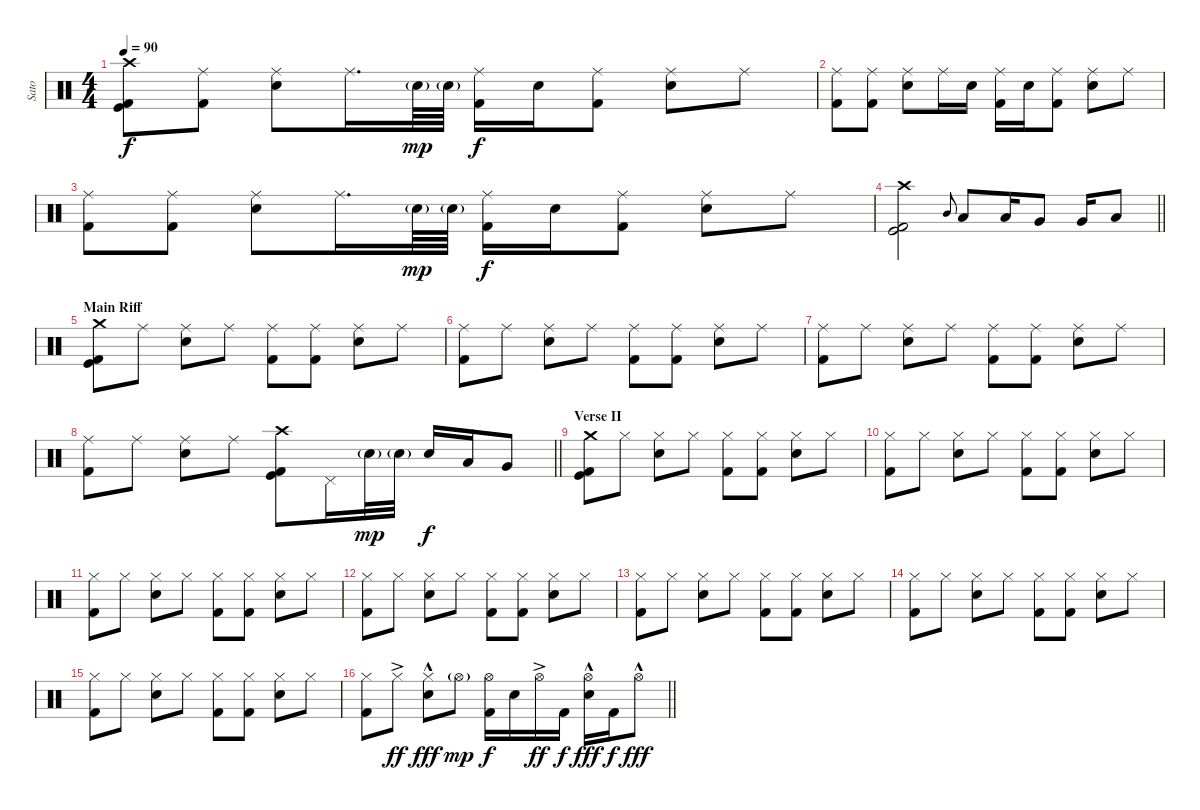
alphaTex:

\track ("Sato" "Sato") {instrument percussion}
\staff {score}
\articulation defaults
\ts (4 4)
\tempo 90
\clef neutral
\ks c
("Crash high (hit)" "Kick (hit) 2" "Kick (hit)").8{dy f} ("Ride (middle)" "Kick (hit) 2").8 ("Ride (middle)" "Electric Snare (hit)").8 "Ride (middle)".16{d} "Electric Snare (hit)"{g}.64{dy mp} "Electric Snare (hit)"{g}.64 ("Ride (middle)" "Kick (hit) 2").16{dy f} "Electric Snare (hit)".16 ("Ride (middle)" "Kick (hit) 2").8 ("Ride (middle)" "Electric Snare (hit)").8 "Ride (middle)".8 |
("Ride (middle)" "Kick (hit) 2").8 ("Ride (middle)" "Kick (hit) 2").8 ("Ride (middle)" "Electric Snare (hit)").8 "Ride (middle)".16 "Electric Snare (hit)".16 ("Ride (middle)" "Kick (hit) 2").16 "Electric Snare (hit)".16 ("Ride (middle)" "Kick (hit) 2").8 ("Ride (middle)" "Electric Snare (hit)").8 "Ride (middle)".8 |
("Ride (middle)" "Kick (hit) 2").8 ("Ride (middle)" "Kick (hit) 2").8 ("Ride (middle)" "Electric Snare (hit)").8 "Ride (middle)".16{d} "Electric Snare (hit)"{g}.64{dy mp} "Electric Snare (hit)"{g}.64 ("Ride (middle)" "Kick (hit) 2").16{dy f} "Electric Snare (hit)".16 ("Ride (middle)" "Kick (hit) 2").8 ("Ride (middle)" "Electric Snare (hit)").8 "Ride (middle)".8 |
\barLineRight lightlight
("Crash high (hit)" "Kick (hit) 2" "Kick (hit)").2 "Mid Tom (hit)".8{gr onbeat} "Low Tom (hit)".8 "Low Tom (hit)".16 "Very Low Tom (hit)".8 "Very Low Tom (hit)".16 "Low Floor Tom (hit)".8 |
\section ("" "Main Riff")
("Crash medium (hit)" "Kick (hit) 2" "Kick (hit)").8 "Ride (middle)".8 ("Ride (middle)" "Electric Snare (hit)").8 "Ride (middle)".8 ("Ride (middle)" "Kick (hit) 2").8 ("Ride (middle)" "Kick (hit) 2").8 ("Ride (middle)" "Electric Snare (hit)").8 "Ride (middle)".8 |
("Ride (middle)" "Kick (hit) 2").8 "Ride (middle)".8 ("Ride (middle)" "Electric Snare (hit)").8 "Ride (middle)".8 ("Ride (middle)" "Kick (hit) 2").8 ("Ride (middle)" "Kick (hit) 2").8 ("Ride (middle)" "Electric Snare (hit)").8 "Ride (middle)".8 |
("Ride (middle)" "Kick (hit) 2").8 "Ride (middle)".8 ("Ride (middle)" "Electric Snare (hit)").8 "Ride (middle)".8 ("Ride (middle)" "Kick (hit) 2").8 ("Ride (middle)" "Kick (hit) 2").8 ("Ride (middle)" "Electric Snare (hit)").8 "Ride (middle)".8 |
\barLineRight lightlight
("Ride (middle)" "Kick (hit) 2").8 "Ride (middle)".8 ("Ride (middle)" "Electric Snare (hit)").8 "Ride (middle)".8 ("Crash high (hit)" "Kick (hit) 2" "Kick (hit)").8 "Pedal Hi-Hat (hit)".16 "Electric Snare (hit)"{g}.32{dy mp} "Electric Snare (hit)"{g}.32 "Electric Snare (hit)".16{dy f} "Low Tom (hit)".16 "Very Low Tom (hit)".8 |
\section ("" "Verse II")
("Crash medium (hit)" "Kick (hit) 2" "Kick (hit)").8 "Hi-Hat (closed)".8 ("Hi-Hat (closed)" "Electric Snare (hit)").8 "Hi-Hat (closed)".8 ("Hi-Hat (closed)" "Kick (hit) 2").8 ("Hi-Hat (closed)" "Kick (hit) 2").8 ("Hi-Hat (closed)" "Electric Snare (hit)").8 "Hi-Hat (closed)".8 |
("Hi-Hat (closed)" "Kick (hit) 2").8 "Hi-Hat (closed)".8 ("Hi-Hat (closed)" "Electric Snare (hit)").8 "Hi-Hat (closed)".8 ("Hi-Hat (closed)" "Kick (hit) 2").8 ("Hi-Hat (closed)" "Kick (hit) 2").8 ("Hi-Hat (closed)" "Electric Snare (hit)").8 "Hi-Hat (closed)".8 |
("Hi-Hat (closed)" "Kick (hit) 2").8 "Hi-Hat (closed)".8 ("Hi-Hat (closed)" "Electric Snare (hit)").8 "Hi-Hat (closed)".8 ("Hi-Hat (closed)" "Kick (hit) 2").8 ("Hi-Hat (closed)" "Kick (hit) 2").8 ("Hi-Hat (closed)" "Electric Snare (hit)").8 "Hi-Hat (closed)".8 |
("Hi-Hat (closed)" "Kick (hit) 2").8 "Hi-Hat (closed)".8 ("Hi-Hat (closed)" "Electric Snare (hit)").8 "Hi-Hat (closed)".8 ("Hi-Hat (closed)" "Kick (hit) 2").8 ("Hi-Hat (closed)" "Kick (hit) 2").8 ("Hi-Hat (closed)" "Electric Snare (hit)").8 "Hi-Hat (closed)".8 |
("Hi-Hat (closed)" "Kick (hit) 2").8 "Hi-Hat (closed)".8 ("Hi-Hat (closed)" "Electric Snare (hit)").8 "Hi-Hat (closed)".8 ("Hi-Hat (closed)" "Kick (hit) 2").8 ("Hi-Hat (closed)" "Kick (hit) 2").8 ("Hi-Hat (closed)" "Electric Snare (hit)").8 "Hi-Hat (closed)".8 |
("Hi-Hat (closed)" "Kick (hit) 2").8 "Hi-Hat (closed)".8 ("Hi-Hat (closed)" "Electric Snare (hit)").8 "Hi-Hat (closed)".8 ("Hi-Hat (closed)" "Kick (hit) 2").8 ("Hi-Hat (closed)" "Kick (hit) 2").8 ("Hi-Hat (closed)" "Electric Snare (hit)").8 "Hi-Hat (closed)".8 |
("Hi-Hat (closed)" "Kick (hit) 2").8 "Hi-Hat (closed)".8 ("Hi-Hat (closed)" "Electric Snare (hit)").8 "Hi-Hat (closed)".8 ("Hi-Hat (closed)" "Kick (hit) 2").8 ("Hi-Hat (closed)" "Kick (hit) 2").8 ("Hi-Hat (closed)" "Electric Snare (hit)").8 "Hi-Hat (closed)".8 |
\barLineRight lightlight
("Hi-Hat (closed)" "Kick (hit) 2").8 "Hi-Hat (closed)"{ac}.8{dy ff} ("Hi-Hat (closed)"{hac} "Electric Snare (hit)").8{dy fff} "Hi-Hat (open)"{g}.8{dy mp} ("Hi-Hat (open)" "Kick (hit) 2").16{dy f} "Electric Snare (hit)".16 "Hi-Hat (open)"{ac}.16{dy ff} "Kick (hit) 2".16{dy f} ("Hi-Hat (open)"{hac} "Electric Snare (hit)").16{dy fff} "Kick (hit) 2".16{dy f} "Hi-Hat (open)"{hac}.8{dy fff}
